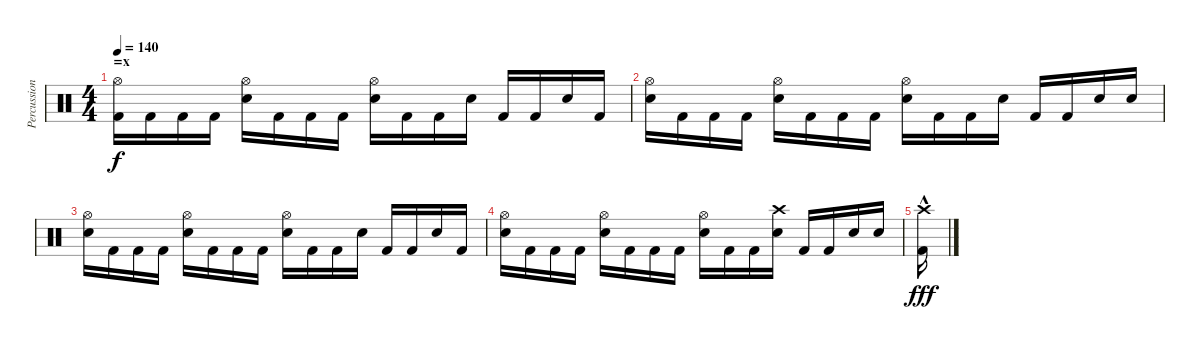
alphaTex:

\track ("Percussion" "Percussion") {instrument percussion}
\staff {score}
\articulation defaults
\ts (4 4)
\section ("" "=x")
\tempo 140
\clef neutral
\ks c
("Kick (hit) 2" "Hi-Hat (open)").16{dy f} "Kick (hit) 2".16 "Kick (hit) 2".16 "Kick (hit) 2".16 ("Electric Snare (hit)" "Hi-Hat (open)").16 "Kick (hit) 2".16 "Kick (hit) 2".16 "Kick (hit) 2".16 ("Electric Snare (hit)" "Hi-Hat (open)").16 "Kick (hit) 2".16 "Kick (hit) 2".16 "Electric Snare (hit)".16 "Kick (hit) 2".16 "Kick (hit) 2".16 "Electric Snare (hit)".16 "Kick (hit) 2".16 |
("Electric Snare (hit)" "Hi-Hat (open)").16 "Kick (hit) 2".16 "Kick (hit) 2".16 "Kick (hit) 2".16 ("Electric Snare (hit)" "Hi-Hat (open)").16 "Kick (hit) 2".16 "Kick (hit) 2".16 "Kick (hit) 2".16 ("Electric Snare (hit)" "Hi-Hat (open)").16 "Kick (hit) 2".16 "Kick (hit) 2".16 "Electric Snare (hit)".16 "Kick (hit) 2".16 "Kick (hit) 2".16 "Electric Snare (hit)".16 "Electric Snare (hit)".16 |
("Electric Snare (hit)" "Hi-Hat (open)").16 "Kick (hit) 2".16 "Kick (hit) 2".16 "Kick (hit) 2".16 ("Electric Snare (hit)" "Hi-Hat (open)").16 "Kick (hit) 2".16 "Kick (hit) 2".16 "Kick (hit) 2".16 ("Electric Snare (hit)" "Hi-Hat (open)").16 "Kick (hit) 2".16 "Kick (hit) 2".16 "Electric Snare (hit)".16 "Kick (hit) 2".16 "Kick (hit) 2".16 "Electric Snare (hit)".16 "Kick (hit) 2".16 |
("Electric Snare (hit)" "Hi-Hat (open)").16 "Kick (hit) 2".16 "Kick (hit) 2".16 "Kick (hit) 2".16 ("Electric Snare (hit)" "Hi-Hat (open)").16 "Kick (hit) 2".16 "Kick (hit) 2".16 "Kick (hit) 2".16 ("Electric Snare (hit)" "Hi-Hat (open)").16 "Kick (hit) 2".16 "Kick (hit) 2".16 ("Electric Snare (hit)" "Crash high (hit)").16 "Kick (hit) 2".16 "Kick (hit) 2".16 "Electric Snare (hit)".16 "Electric Snare (hit)".16 |
("Kick (hit) 2"{hac} "Crash high (hit)"{hac}).16{dy fff}
